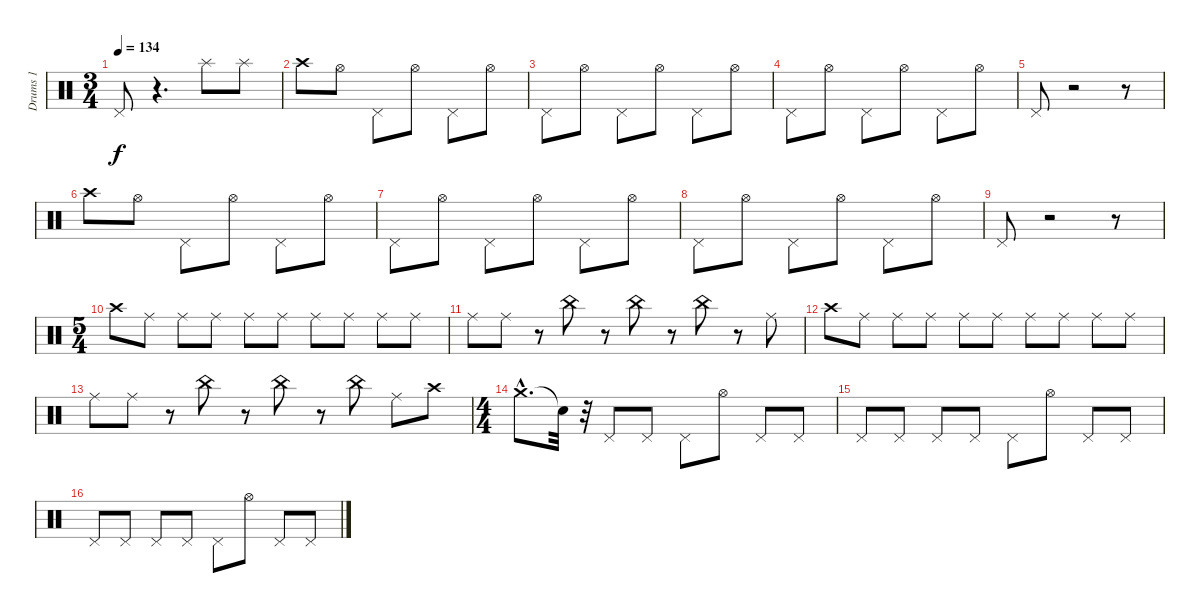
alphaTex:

\track ("Drums 1" "Drums 1") {instrument percussion}
\staff {score}
\articulation defaults
\ts (3 4)
\tempo 134
\clef neutral
\ks c "Pedal Hi-Hat (hit)".8{dy f}
r.4{d} "Splash (hit)".8 "Splash (hit)".8 |
"Crash high (hit)".8 "Hi-Hat (open)".8 "Pedal Hi-Hat (hit)".8 "Hi-Hat (open)".8 "Pedal Hi-Hat (hit)".8 "Hi-Hat (open)".8 |
"Pedal Hi-Hat (hit)".8 "Hi-Hat (open)".8 "Pedal Hi-Hat (hit)".8 "Hi-Hat (open)".8 "Pedal Hi-Hat (hit)".8 "Hi-Hat (open)".8 |
"Pedal Hi-Hat (hit)".8 "Hi-Hat (open)".8 "Pedal Hi-Hat (hit)".8 "Hi-Hat (open)".8 "Pedal Hi-Hat (hit)".8 "Hi-Hat (open)".8 |
"Pedal Hi-Hat (hit)".8 r.2 r.8 |
"Crash high (hit)".8 "Hi-Hat (open)".8 "Pedal Hi-Hat (hit)".8 "Hi-Hat (open)".8 "Pedal Hi-Hat (hit)".8 "Hi-Hat (open)".8 |
"Pedal Hi-Hat (hit)".8 "Hi-Hat (open)".8 "Pedal Hi-Hat (hit)".8 "Hi-Hat (open)".8 "Pedal Hi-Hat (hit)".8 "Hi-Hat (open)".8 |
"Pedal Hi-Hat (hit)".8 "Hi-Hat (open)".8 "Pedal Hi-Hat (hit)".8 "Hi-Hat (open)".8 "Pedal Hi-Hat (hit)".8 "Hi-Hat (open)".8 |
"Pedal Hi-Hat (hit)".8 r.2 r.8 |
\ts (5 4)
"Crash high (hit)".8 "Ride (middle)".8 "Ride (middle)".8 "Ride (middle)".8 "Ride (middle)".8 "Ride (middle)".8 "Ride (middle)".8 "Ride (middle)".8 "Ride (middle)".8 "Ride (middle)".8 |
"Ride (middle)".8 "Ride (middle)".8 r.8 "China (hit)".8 r.8 "China (hit)".8 r.8 "China (hit)".8 r.8 "Ride (middle)".8 |
"Crash high (hit)".8 "Ride (middle)".8 "Ride (middle)".8 "Ride (middle)".8 "Ride (middle)".8 "Ride (middle)".8 "Ride (middle)".8 "Ride (middle)".8 "Ride (middle)".8 "Ride (middle)".8 |
"Ride (middle)".8 "Ride (middle)".8 r.8 "China (hit)".8 r.8 "China (hit)".8 r.8 "China (hit)".8 "Ride (middle)".8 "Crash high (hit)".8 |
\ts (4 4)
"Crash medium (hit)"{hac}.8{d} "Snare (hit)"{t}.32 r.32 "Pedal Hi-Hat (hit)".8 "Pedal Hi-Hat (hit)".8 "Pedal Hi-Hat (hit)".8 "Hi-Hat (open)".8 "Pedal Hi-Hat (hit)".8 "Pedal Hi-Hat (hit)".8 |
"Pedal Hi-Hat (hit)".8 "Pedal Hi-Hat (hit)".8 "Pedal Hi-Hat (hit)".8 "Pedal Hi-Hat (hit)".8 "Pedal Hi-Hat (hit)".8 "Hi-Hat (open)".8 "Pedal Hi-Hat (hit)".8 "Pedal Hi-Hat (hit)".8 |
"Pedal Hi-Hat (hit)".8 "Pedal Hi-Hat (hit)".8 "Pedal Hi-Hat (hit)".8 "Pedal Hi-Hat (hit)".8 "Pedal Hi-Hat (hit)".8 "Hi-Hat (open)".8 "Pedal Hi-Hat (hit)".8 "Pedal Hi-Hat (hit)".8
